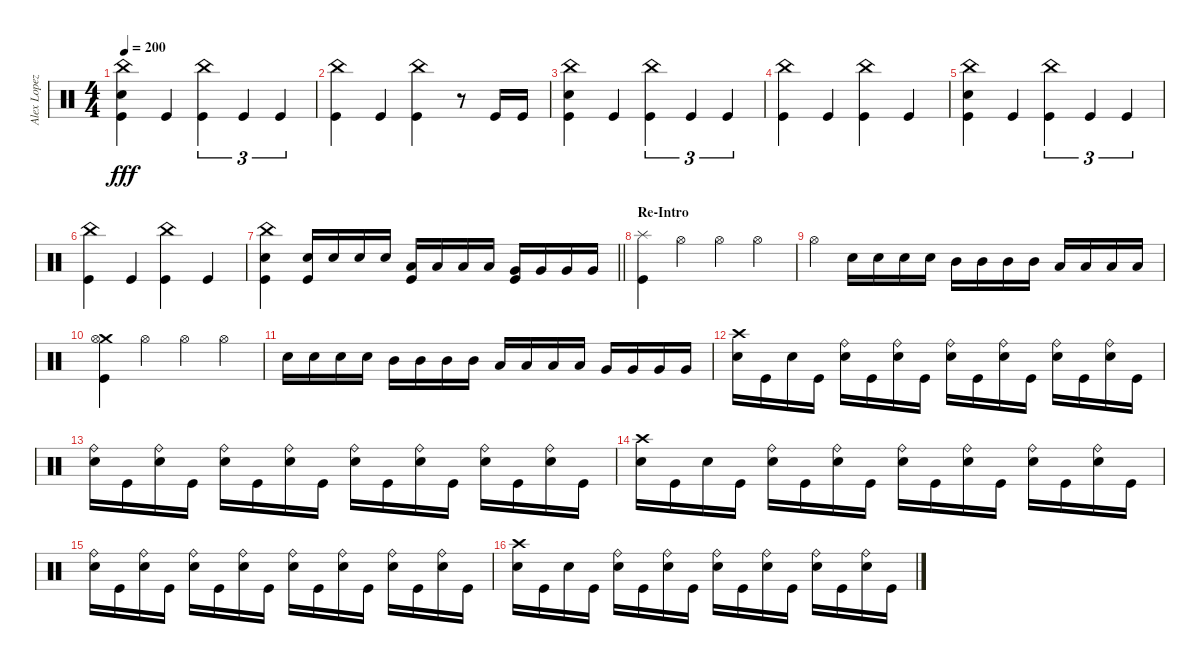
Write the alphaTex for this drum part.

\track ("Alex Lopez" "Alex Lopez") {instrument percussion}
\staff {score}
\articulation defaults
\ts (4 4)
\tempo 200
\clef neutral
\ks c
("China (hit)" "Snare (hit) 2" "Kick (hit)").4{dy fff} "Kick (hit)".4 ("China (hit)" "Kick (hit)").4{tu (3 2)} "Kick (hit)".4{tu (3 2)} "Kick (hit)".4{tu (3 2)} |
("China (hit)" "Kick (hit)").4 "Kick (hit)".4 ("China (hit)" "Kick (hit)").4 r.8 "Kick (hit)".16 "Kick (hit)".16 |
("China (hit)" "Snare (hit) 2" "Kick (hit)").4 "Kick (hit)".4 ("China (hit)" "Kick (hit)").4{tu (3 2)} "Kick (hit)".4{tu (3 2)} "Kick (hit)".4{tu (3 2)} |
("China (hit)" "Kick (hit)").4 "Kick (hit)".4 ("China (hit)" "Kick (hit)").4 "Kick (hit)".4 |
("China (hit)" "Snare (hit) 2" "Kick (hit)").4 "Kick (hit)".4 ("China (hit)" "Kick (hit)").4{tu (3 2)} "Kick (hit)".4{tu (3 2)} "Kick (hit)".4{tu (3 2)} |
("China (hit)" "Kick (hit)").4 "Kick (hit)".4 ("China (hit)" "Kick (hit)").4 "Kick (hit)".4 |
\barLineRight lightlight
("China (hit)" "Snare (hit) 2" "Kick (hit)").4 ("Snare (hit) 2" "Kick (hit)").16 "Snare (hit) 2".16 "Snare (hit) 2".16 "Snare (hit) 2".16 ("Low Tom (hit)" "Kick (hit)").16 "Low Tom (hit)".16 "Low Tom (hit)".16 "Low Tom (hit)".16 ("Very Low Tom (hit)" "Kick (hit)").16 "Very Low Tom (hit)".16 "Very Low Tom (hit)".16 "Very Low Tom (hit)".16 |
\section ("" "Re-Intro")
("Splash (hit)" "Kick (hit)").4 "Hi-Hat (open)".4 "Hi-Hat (open)".4 "Hi-Hat (open)".4 |
"Hi-Hat (open)".4 "Snare (hit) 2".16 "Snare (hit) 2".16 "Snare (hit) 2".16 "Snare (hit) 2".16 "Mid Tom (hit)".16 "Mid Tom (hit)".16 "Mid Tom (hit)".16 "Mid Tom (hit)".16 "Low Tom (hit)".16 "Low Tom (hit)".16 "Low Tom (hit)".16 "Low Tom (hit)".16 |
("Crash medium (hit)" "Hi-Hat (open)" "Kick (hit)").4 "Hi-Hat (open)".4 "Hi-Hat (open)".4 "Hi-Hat (open)".4 |
"Snare (hit) 2".16 "Snare (hit) 2".16 "Snare (hit) 2".16 "Snare (hit) 2".16 "Mid Tom (hit)".16 "Mid Tom (hit)".16 "Mid Tom (hit)".16 "Mid Tom (hit)".16 "Low Tom (hit)".16 "Low Tom (hit)".16 "Low Tom (hit)".16 "Low Tom (hit)".16 "Very Low Tom (hit)".16 "Very Low Tom (hit)".16 "Very Low Tom (hit)".16 "Very Low Tom (hit)".16 |
("Snare (hit) 2" "Crash high (hit)").16 "Kick (hit)".16 "Snare (hit) 2".16 "Kick (hit)".16 ("Snare (hit) 2" "Ride (bell)").16 "Kick (hit)".16 ("Snare (hit) 2" "Ride (bell)").16 "Kick (hit)".16 ("Snare (hit) 2" "Ride (bell)").16 "Kick (hit)".16 ("Snare (hit) 2" "Ride (bell)").16 "Kick (hit)".16 ("Snare (hit) 2" "Ride (bell)").16 "Kick (hit)".16 ("Snare (hit) 2" "Ride (bell)").16 "Kick (hit)".16 |
("Snare (hit) 2" "Ride (bell)").16 "Kick (hit)".16 ("Snare (hit) 2" "Ride (bell)").16 "Kick (hit)".16 ("Snare (hit) 2" "Ride (bell)").16 "Kick (hit)".16 ("Snare (hit) 2" "Ride (bell)").16 "Kick (hit)".16 ("Snare (hit) 2" "Ride (bell)").16 "Kick (hit)".16 ("Snare (hit) 2" "Ride (bell)").16 "Kick (hit)".16 ("Snare (hit) 2" "Ride (bell)").16 "Kick (hit)".16 ("Snare (hit) 2" "Ride (bell)").16 "Kick (hit)".16 |
("Snare (hit) 2" "Crash high (hit)").16 "Kick (hit)".16 "Snare (hit) 2".16 "Kick (hit)".16 ("Snare (hit) 2" "Ride (bell)").16 "Kick (hit)".16 ("Snare (hit) 2" "Ride (bell)").16 "Kick (hit)".16 ("Snare (hit) 2" "Ride (bell)").16 "Kick (hit)".16 ("Snare (hit) 2" "Ride (bell)").16 "Kick (hit)".16 ("Snare (hit) 2" "Ride (bell)").16 "Kick (hit)".16 ("Snare (hit) 2" "Ride (bell)").16 "Kick (hit)".16 |
("Snare (hit) 2" "Ride (bell)").16 "Kick (hit)".16 ("Snare (hit) 2" "Ride (bell)").16 "Kick (hit)".16 ("Snare (hit) 2" "Ride (bell)").16 "Kick (hit)".16 ("Snare (hit) 2" "Ride (bell)").16 "Kick (hit)".16 ("Snare (hit) 2" "Ride (bell)").16 "Kick (hit)".16 ("Snare (hit) 2" "Ride (bell)").16 "Kick (hit)".16 ("Snare (hit) 2" "Ride (bell)").16 "Kick (hit)".16 ("Snare (hit) 2" "Ride (bell)").16 "Kick (hit)".16 |
("Snare (hit) 2" "Crash high (hit)").16 "Kick (hit)".16 "Snare (hit) 2".16 "Kick (hit)".16 ("Snare (hit) 2" "Ride (bell)").16 "Kick (hit)".16 ("Snare (hit) 2" "Ride (bell)").16 "Kick (hit)".16 ("Snare (hit) 2" "Ride (bell)").16 "Kick (hit)".16 ("Snare (hit) 2" "Ride (bell)").16 "Kick (hit)".16 ("Snare (hit) 2" "Ride (bell)").16 "Kick (hit)".16 ("Snare (hit) 2" "Ride (bell)").16 "Kick (hit)".16
